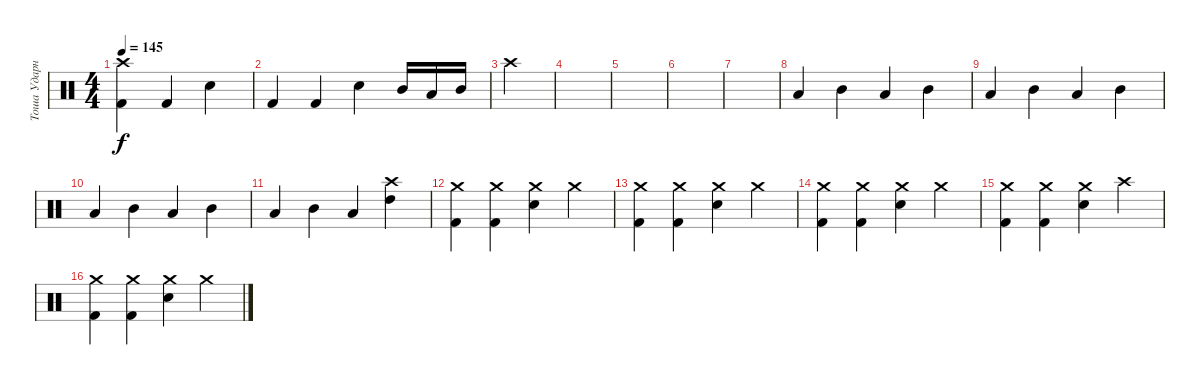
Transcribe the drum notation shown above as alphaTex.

\track ("Тоша Ударные" "Тоша Ударн") {instrument percussion}
\staff {score}
\articulation defaults
\ts (4 4)
\tempo 145
\clef neutral
\ks c
("Kick (hit) 2" "Crash high (hit)").4{dy f} "Kick (hit) 2".4 "Electric Snare (hit)".4 |
"Kick (hit) 2".4 "Kick (hit) 2".4 "Electric Snare (hit)".4 "Mid Tom (hit)".16 "Low Tom (hit)".16 "Mid Tom (hit)".16 |
"Crash high (hit)".4 |
|
|
|
|
"Low Tom (hit)".4 "Mid Tom (hit)".4 "Low Tom (hit)".4 "Mid Tom (hit)".4 |
"Low Tom (hit)".4 "Mid Tom (hit)".4 "Low Tom (hit)".4 "Mid Tom (hit)".4 |
"Low Tom (hit)".4 "Mid Tom (hit)".4 "Low Tom (hit)".4 "Mid Tom (hit)".4 |
"Low Tom (hit)".4 "Mid Tom (hit)".4 "Low Tom (hit)".4 ("High Tom (hit)" "Crash high (hit)").4 |
("Kick (hit) 2" "Crash medium (hit)").4 ("Kick (hit) 2" "Crash medium (hit)").4 ("Electric Snare (hit)" "Crash medium (hit)").4 "Crash medium (hit)".4 |
("Kick (hit) 2" "Crash medium (hit)").4 ("Kick (hit) 2" "Crash medium (hit)").4 ("Electric Snare (hit)" "Crash medium (hit)").4 "Crash medium (hit)".4 |
("Crash medium (hit)" "Kick (hit) 2").4 ("Crash medium (hit)" "Kick (hit) 2").4 ("Crash medium (hit)" "Electric Snare (hit)").4 "Crash medium (hit)".4 |
("Kick (hit) 2" "Crash medium (hit)").4 ("Kick (hit) 2" "Crash medium (hit)").4 ("Electric Snare (hit)" "Crash medium (hit)").4 "Crash high (hit)".4 |
("Kick (hit) 2" "Crash medium (hit)").4 ("Kick (hit) 2" "Crash medium (hit)").4 ("Electric Snare (hit)" "Crash medium (hit)").4 "Crash medium (hit)".4
